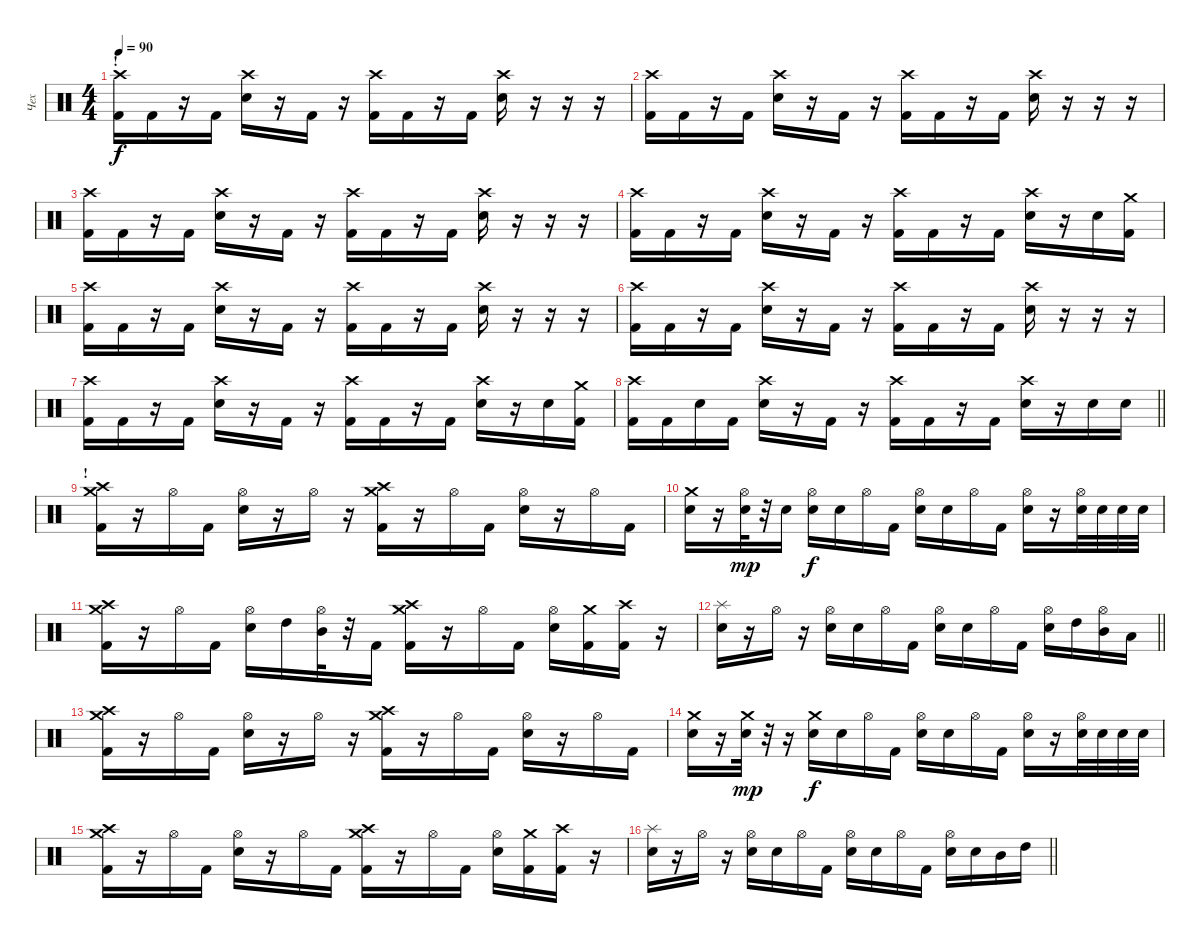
\track ("Чех" "Чех") {instrument percussion}
\staff {score}
\articulation defaults
\ts (4 4)
\section ("" "!")
\tempo 90
\clef neutral
\ks c
("Crash high (hit)" "Kick (hit) 2").16{dy f} "Kick (hit) 2".16 r.16 "Kick (hit) 2".16 ("Crash high (hit)" "Snare (hit) 2").16 r.16 "Kick (hit) 2".16 r.16 ("Crash high (hit)" "Kick (hit) 2").16 "Kick (hit) 2".16 r.16 "Kick (hit) 2".16 ("Crash high (hit)" "Snare (hit) 2").16 r.16 r.16 r.16 |
("Crash high (hit)" "Kick (hit) 2").16 "Kick (hit) 2".16 r.16 "Kick (hit) 2".16 ("Crash high (hit)" "Snare (hit) 2").16 r.16 "Kick (hit) 2".16 r.16 ("Crash high (hit)" "Kick (hit) 2").16 "Kick (hit) 2".16 r.16 "Kick (hit) 2".16 ("Crash high (hit)" "Snare (hit) 2").16 r.16 r.16 r.16 |
("Crash high (hit)" "Kick (hit) 2").16 "Kick (hit) 2".16 r.16 "Kick (hit) 2".16 ("Crash high (hit)" "Snare (hit) 2").16 r.16 "Kick (hit) 2".16 r.16 ("Crash high (hit)" "Kick (hit) 2").16 "Kick (hit) 2".16 r.16 "Kick (hit) 2".16 ("Crash high (hit)" "Snare (hit) 2").16 r.16 r.16 r.16 |
("Crash high (hit)" "Kick (hit) 2").16 "Kick (hit) 2".16 r.16 "Kick (hit) 2".16 ("Crash high (hit)" "Snare (hit) 2").16 r.16 "Kick (hit) 2".16 r.16 ("Crash high (hit)" "Kick (hit) 2").16 "Kick (hit) 2".16 r.16 "Kick (hit) 2".16 ("Crash high (hit)" "Snare (hit) 2").16 r.16 "Snare (hit) 2".16 ("Crash medium (hit)" "Kick (hit) 2").16 |
("Crash high (hit)" "Kick (hit) 2").16 "Kick (hit) 2".16 r.16 "Kick (hit) 2".16 ("Crash high (hit)" "Snare (hit) 2").16 r.16 "Kick (hit) 2".16 r.16 ("Crash high (hit)" "Kick (hit) 2").16 "Kick (hit) 2".16 r.16 "Kick (hit) 2".16 ("Crash high (hit)" "Snare (hit) 2").16 r.16 r.16 r.16 |
("Crash high (hit)" "Kick (hit) 2").16 "Kick (hit) 2".16 r.16 "Kick (hit) 2".16 ("Crash high (hit)" "Snare (hit) 2").16 r.16 "Kick (hit) 2".16 r.16 ("Crash high (hit)" "Kick (hit) 2").16 "Kick (hit) 2".16 r.16 "Kick (hit) 2".16 ("Crash high (hit)" "Snare (hit) 2").16 r.16 r.16 r.16 |
("Crash high (hit)" "Kick (hit) 2").16 "Kick (hit) 2".16 r.16 "Kick (hit) 2".16 ("Crash high (hit)" "Snare (hit) 2").16 r.16 "Kick (hit) 2".16 r.16 ("Crash high (hit)" "Kick (hit) 2").16 "Kick (hit) 2".16 r.16 "Kick (hit) 2".16 ("Crash high (hit)" "Snare (hit) 2").16 r.16 "Snare (hit) 2".16 ("Crash medium (hit)" "Kick (hit) 2").16 |
\barLineRight lightlight
("Crash high (hit)" "Kick (hit) 2").16 "Kick (hit) 2".16 "Snare (hit) 2".16 "Kick (hit) 2".16 ("Crash high (hit)" "Snare (hit) 2").16 r.16 "Kick (hit) 2".16 r.16 ("Crash high (hit)" "Kick (hit) 2").16 "Kick (hit) 2".16 r.16 "Kick (hit) 2".16 ("Crash high (hit)" "Snare (hit) 2").16 r.16 "Snare (hit) 2".16 "Snare (hit) 2".16 |
\section ("" "!")
("Crash medium (hit)" "Crash high (hit)" "Kick (hit) 2").16 r.16 "Hi-Hat (open)".16 "Kick (hit) 2".16 ("Hi-Hat (open)" "Snare (hit) 2").16 r.16 "Hi-Hat (open)".16 r.16 ("Crash medium (hit)" "Crash high (hit)" "Kick (hit) 2").16 r.16 "Hi-Hat (open)".16 "Kick (hit) 2".16 ("Hi-Hat (open)" "Snare (hit) 2").16 r.16 "Hi-Hat (open)".16 "Kick (hit) 2".16 |
("Crash medium (hit)" "Snare (hit) 2").16 r.16 ("Hi-Hat (open)" "Snare (hit) 2").32{dy mp} r.32 "Snare (hit) 2".16 ("Hi-Hat (open)" "Snare (hit) 2").16{dy f} "Snare (hit) 2".16 "Hi-Hat (open)".16 "Kick (hit) 2".16 ("Hi-Hat (open)" "Snare (hit) 2").16 "Snare (hit) 2".16 "Hi-Hat (open)".16 "Kick (hit) 2".16 ("Hi-Hat (open)" "Snare (hit) 2").16 r.16 ("Hi-Hat (open)" "Snare (hit) 2").32 "Snare (hit) 2".32 "Snare (hit) 2".32 "Snare (hit) 2".32 |
("Crash medium (hit)" "Crash high (hit)" "Kick (hit) 2").16 r.16 "Hi-Hat (open)".16 "Kick (hit) 2".16 ("Hi-Hat (open)" "Snare (hit) 2").16 "High Tom (hit)".16 ("Hi-Hat (open)" "Mid Tom (hit)").32 r.32 "Kick (hit) 2".16 ("Crash medium (hit)" "Crash high (hit)" "Kick (hit) 2").16 r.16 "Hi-Hat (open)".16 "Kick (hit) 2".16 ("Hi-Hat (open)" "Snare (hit) 2").16 ("Crash medium (hit)" "Kick (hit) 2").16 ("Crash high (hit)" "Kick (hit) 2").16 r.16 |
\barLineRight lightlight
("Splash (hit)" "Snare (hit) 2").16 r.16 "Hi-Hat (open)".16 r.16 ("Hi-Hat (open)" "Snare (hit) 2").16 "Snare (hit) 2".16 "Hi-Hat (open)".16 "Kick (hit) 2".16 ("Hi-Hat (open)" "Snare (hit) 2").16 "Snare (hit) 2".16 "Hi-Hat (open)".16 "Kick (hit) 2".16 ("Hi-Hat (open)" "Snare (hit) 2").16 "High Tom (hit)".16 ("Hi-Hat (open)" "Mid Tom (hit)").16 "Low Tom (hit)".16 |
("Crash medium (hit)" "Crash high (hit)" "Kick (hit) 2").16 r.16 "Hi-Hat (open)".16 "Kick (hit) 2".16 ("Hi-Hat (open)" "Snare (hit) 2").16 r.16 "Hi-Hat (open)".16 r.16 ("Crash medium (hit)" "Crash high (hit)" "Kick (hit) 2").16 r.16 "Hi-Hat (open)".16 "Kick (hit) 2".16 ("Hi-Hat (open)" "Snare (hit) 2").16 r.16 "Hi-Hat (open)".16 "Kick (hit) 2".16 |
("Crash medium (hit)" "Snare (hit) 2").16 r.16 ("Crash medium (hit)" "Snare (hit) 2").32{dy mp} r.32 r.16 ("Crash medium (hit)" "Snare (hit) 2").16{dy f} "Snare (hit) 2".16 "Hi-Hat (open)".16 "Kick (hit) 2".16 ("Hi-Hat (open)" "Snare (hit) 2").16 "Snare (hit) 2".16 "Hi-Hat (open)".16 "Kick (hit) 2".16 ("Hi-Hat (open)" "Snare (hit) 2").16 r.16 ("Hi-Hat (open)" "Snare (hit) 2").32 "Snare (hit) 2".32 "Snare (hit) 2".32 "Snare (hit) 2".32 |
("Crash medium (hit)" "Crash high (hit)" "Kick (hit) 2").16 r.16 "Hi-Hat (open)".16 "Kick (hit) 2".16 ("Hi-Hat (open)" "Snare (hit) 2").16 r.16 "Hi-Hat (open)".16 "Kick (hit) 2".16 ("Crash medium (hit)" "Crash high (hit)" "Kick (hit) 2").16 r.16 "Hi-Hat (open)".16 "Kick (hit) 2".16 ("Hi-Hat (open)" "Snare (hit) 2").16 ("Crash medium (hit)" "Kick (hit) 2").16 ("Crash high (hit)" "Kick (hit) 2").16 r.16 |
\barLineRight lightlight
("Splash (hit)" "Snare (hit) 2").16 r.16 "Hi-Hat (open)".16 r.16 ("Hi-Hat (open)" "Snare (hit) 2").16 "Snare (hit) 2".16 "Hi-Hat (open)".16 "Kick (hit) 2".16 ("Hi-Hat (open)" "Snare (hit) 2").16 "Snare (hit) 2".16 "Hi-Hat (open)".16 "Kick (hit) 2".16 ("Hi-Hat (open)" "Snare (hit) 2").16 "Snare (hit) 2".16 "Mid Tom (hit)".16 "High Tom (hit)".16
